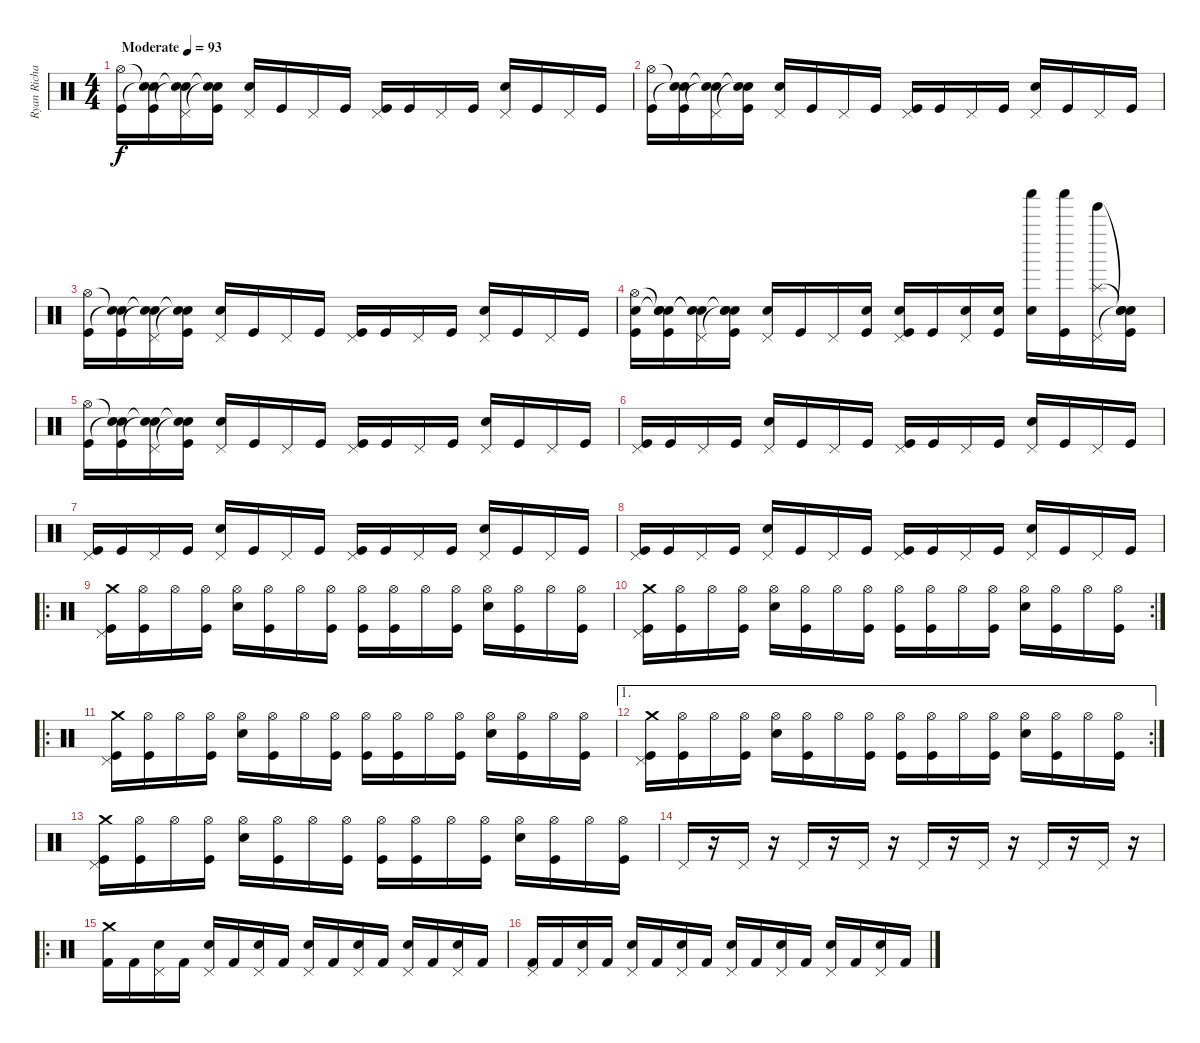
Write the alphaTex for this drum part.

\track ("Ryan Richards" "Ryan Richa") {instrument percussion}
\staff {score}
\articulation defaults
\ts (4 4)
\tempo (93 "Moderate")
\clef neutral
\ks c
("Hi-Hat (open)" "Kick (hit)").16{dy f} ("Snare (hit)"{t} "Snare (hit)"{t} "Kick (hit)").16 ("Snare (hit)"{t} "Pedal Hi-Hat (hit)" "Snare (hit)"{t}).16 ("Snare (hit)"{t} "Snare (hit)"{t} "Kick (hit)").16 ("Pedal Hi-Hat (hit)" "Electric Snare (hit)").16 "Kick (hit)".16 "Pedal Hi-Hat (hit)".16 "Kick (hit)".16 ("Pedal Hi-Hat (hit)" "Kick (hit)").16 "Kick (hit)".16 "Pedal Hi-Hat (hit)".16 "Kick (hit)".16 ("Pedal Hi-Hat (hit)" "Electric Snare (hit)").16 "Kick (hit)".16 "Pedal Hi-Hat (hit)".16 "Kick (hit)".16 |
("Hi-Hat (open)" "Kick (hit)").16 ("Snare (hit)"{t} "Snare (hit)"{t} "Kick (hit)").16 ("Snare (hit)"{t} "Pedal Hi-Hat (hit)" "Snare (hit)"{t}).16 ("Snare (hit)"{t} "Snare (hit)"{t} "Kick (hit)").16 ("Pedal Hi-Hat (hit)" "Electric Snare (hit)").16 "Kick (hit)".16 "Pedal Hi-Hat (hit)".16 "Kick (hit)".16 ("Pedal Hi-Hat (hit)" "Kick (hit)").16 "Kick (hit)".16 "Pedal Hi-Hat (hit)".16 "Kick (hit)".16 ("Pedal Hi-Hat (hit)" "Electric Snare (hit)").16 "Kick (hit)".16 "Pedal Hi-Hat (hit)".16 "Kick (hit)".16 |
("Hi-Hat (open)" "Kick (hit)").16 ("Snare (hit)"{t} "Snare (hit)"{t} "Kick (hit)").16 ("Snare (hit)"{t} "Pedal Hi-Hat (hit)" "Snare (hit)"{t}).16 ("Snare (hit)"{t} "Snare (hit)"{t} "Kick (hit)").16 ("Pedal Hi-Hat (hit)" "Electric Snare (hit)").16 "Kick (hit)".16 "Pedal Hi-Hat (hit)".16 "Kick (hit)".16 ("Pedal Hi-Hat (hit)" "Kick (hit)").16 "Kick (hit)".16 "Pedal Hi-Hat (hit)".16 "Kick (hit)".16 ("Pedal Hi-Hat (hit)" "Electric Snare (hit)").16 "Kick (hit)".16 "Pedal Hi-Hat (hit)".16 "Kick (hit)".16 |
("Hi-Hat (open)" "Electric Snare (hit)" "Kick (hit)").16 ("Snare (hit)"{t} "Snare (hit)"{t} "Electric Snare (hit)" "Kick (hit)").16 ("Snare (hit)"{t} "Pedal Hi-Hat (hit)" "Snare (hit)"{t}).16 ("Snare (hit)"{t} "Snare (hit)"{t} "Electric Snare (hit)" "Kick (hit)").16 ("Pedal Hi-Hat (hit)" "Electric Snare (hit)").16 "Kick (hit)".16 "Pedal Hi-Hat (hit)".16 ("Electric Snare (hit)" "Kick (hit)").16 ("Pedal Hi-Hat (hit)" "Electric Snare (hit)" "Kick (hit)").16 "Kick (hit)".16 ("Pedal Hi-Hat (hit)" "Electric Snare (hit)").16 ("Electric Snare (hit)" "Kick (hit)").16 ("Shaker (hit)" "Electric Snare (hit)").16 ("Shaker (hit)" "Kick (hit)").16 ("Splash (hit)" "Tinkle Bell (hit)" "Pedal Hi-Hat (hit)").16 ("Snare (hit)"{t} "Snare (hit)"{t} "Snare (hit)"{t} "Kick (hit)").16 |
("Hi-Hat (open)" "Kick (hit)").16 ("Snare (hit)"{t} "Snare (hit)"{t} "Kick (hit)").16 ("Snare (hit)"{t} "Pedal Hi-Hat (hit)" "Snare (hit)"{t}).16 ("Snare (hit)"{t} "Snare (hit)"{t} "Kick (hit)").16 ("Pedal Hi-Hat (hit)" "Electric Snare (hit)").16 "Kick (hit)".16 "Pedal Hi-Hat (hit)".16 "Kick (hit)".16 ("Pedal Hi-Hat (hit)" "Kick (hit)").16 "Kick (hit)".16 "Pedal Hi-Hat (hit)".16 "Kick (hit)".16 ("Pedal Hi-Hat (hit)" "Electric Snare (hit)").16 "Kick (hit)".16 "Pedal Hi-Hat (hit)".16 "Kick (hit)".16 |
("Pedal Hi-Hat (hit)" "Kick (hit)").16 "Kick (hit)".16 "Pedal Hi-Hat (hit)".16 "Kick (hit)".16 ("Pedal Hi-Hat (hit)" "Electric Snare (hit)").16 "Kick (hit)".16 "Pedal Hi-Hat (hit)".16 "Kick (hit)".16 ("Pedal Hi-Hat (hit)" "Kick (hit)").16 "Kick (hit)".16 "Pedal Hi-Hat (hit)".16 "Kick (hit)".16 ("Pedal Hi-Hat (hit)" "Electric Snare (hit)").16 "Kick (hit)".16 "Pedal Hi-Hat (hit)".16 "Kick (hit)".16 |
("Pedal Hi-Hat (hit)" "Kick (hit)").16 "Kick (hit)".16 "Pedal Hi-Hat (hit)".16 "Kick (hit)".16 ("Pedal Hi-Hat (hit)" "Electric Snare (hit)").16 "Kick (hit)".16 "Pedal Hi-Hat (hit)".16 "Kick (hit)".16 ("Pedal Hi-Hat (hit)" "Kick (hit)").16 "Kick (hit)".16 "Pedal Hi-Hat (hit)".16 "Kick (hit)".16 ("Pedal Hi-Hat (hit)" "Electric Snare (hit)").16 "Kick (hit)".16 "Pedal Hi-Hat (hit)".16 "Kick (hit)".16 |
("Pedal Hi-Hat (hit)" "Kick (hit)").16 "Kick (hit)".16 "Pedal Hi-Hat (hit)".16 "Kick (hit)".16 ("Pedal Hi-Hat (hit)" "Electric Snare (hit)").16 "Kick (hit)".16 "Pedal Hi-Hat (hit)".16 "Kick (hit)".16 ("Pedal Hi-Hat (hit)" "Kick (hit)").16 "Kick (hit)".16 "Pedal Hi-Hat (hit)".16 "Kick (hit)".16 ("Pedal Hi-Hat (hit)" "Electric Snare (hit)").16 "Kick (hit)".16 "Pedal Hi-Hat (hit)".16 "Kick (hit)".16 |
\ro
("Crash medium (hit)" "Pedal Hi-Hat (hit)" "Kick (hit)").16 ("Hi-Hat (open)" "Kick (hit)").16 "Hi-Hat (open)".16 ("Hi-Hat (open)" "Kick (hit)").16 ("Hi-Hat (open)" "Electric Snare (hit)").16 ("Hi-Hat (open)" "Kick (hit)").16 "Hi-Hat (open)".16 ("Hi-Hat (open)" "Kick (hit)").16 ("Hi-Hat (open)" "Kick (hit)").16 ("Hi-Hat (open)" "Kick (hit)").16 "Hi-Hat (open)".16 ("Hi-Hat (open)" "Kick (hit)").16 ("Hi-Hat (open)" "Electric Snare (hit)").16 ("Hi-Hat (open)" "Kick (hit)").16 "Hi-Hat (open)".16 ("Hi-Hat (open)" "Kick (hit)").16 |
\rc 2
("Crash medium (hit)" "Pedal Hi-Hat (hit)" "Kick (hit)").16 ("Hi-Hat (open)" "Kick (hit)").16 "Hi-Hat (open)".16 ("Hi-Hat (open)" "Kick (hit)").16 ("Hi-Hat (open)" "Electric Snare (hit)").16 ("Hi-Hat (open)" "Kick (hit)").16 "Hi-Hat (open)".16 ("Hi-Hat (open)" "Kick (hit)").16 ("Hi-Hat (open)" "Kick (hit)").16 ("Hi-Hat (open)" "Kick (hit)").16 "Hi-Hat (open)".16 ("Hi-Hat (open)" "Kick (hit)").16 ("Hi-Hat (open)" "Electric Snare (hit)").16 ("Hi-Hat (open)" "Kick (hit)").16 "Hi-Hat (open)".16 ("Hi-Hat (open)" "Kick (hit)").16 |
\ro
("Crash medium (hit)" "Pedal Hi-Hat (hit)" "Kick (hit)").16 ("Hi-Hat (open)" "Kick (hit)").16 "Hi-Hat (open)".16 ("Hi-Hat (open)" "Kick (hit)").16 ("Hi-Hat (open)" "Electric Snare (hit)").16 ("Hi-Hat (open)" "Kick (hit)").16 "Hi-Hat (open)".16 ("Hi-Hat (open)" "Kick (hit)").16 ("Hi-Hat (open)" "Kick (hit)").16 ("Hi-Hat (open)" "Kick (hit)").16 "Hi-Hat (open)".16 ("Hi-Hat (open)" "Kick (hit)").16 ("Hi-Hat (open)" "Electric Snare (hit)").16 ("Hi-Hat (open)" "Kick (hit)").16 "Hi-Hat (open)".16 ("Hi-Hat (open)" "Kick (hit)").16 |
\ae 1
\rc 2
("Crash medium (hit)" "Pedal Hi-Hat (hit)" "Kick (hit)").16 ("Hi-Hat (open)" "Kick (hit)").16 "Hi-Hat (open)".16 ("Hi-Hat (open)" "Kick (hit)").16 ("Hi-Hat (open)" "Electric Snare (hit)").16 ("Hi-Hat (open)" "Kick (hit)").16 "Hi-Hat (open)".16 ("Hi-Hat (open)" "Kick (hit)").16 ("Hi-Hat (open)" "Kick (hit)").16 ("Hi-Hat (open)" "Kick (hit)").16 "Hi-Hat (open)".16 ("Hi-Hat (open)" "Kick (hit)").16 ("Hi-Hat (open)" "Electric Snare (hit)").16 ("Hi-Hat (open)" "Kick (hit)").16 "Hi-Hat (open)".16 ("Hi-Hat (open)" "Kick (hit)").16 |
("Crash medium (hit)" "Pedal Hi-Hat (hit)" "Kick (hit)").16 ("Hi-Hat (open)" "Kick (hit)").16 "Hi-Hat (open)".16 ("Hi-Hat (open)" "Kick (hit)").16 ("Hi-Hat (open)" "Electric Snare (hit)").16 ("Hi-Hat (open)" "Kick (hit)").16 "Hi-Hat (open)".16 ("Hi-Hat (open)" "Kick (hit)").16 ("Hi-Hat (open)" "Kick (hit)").16 ("Hi-Hat (open)" "Kick (hit)").16 "Hi-Hat (open)".16 ("Hi-Hat (open)" "Kick (hit)").16 ("Hi-Hat (open)" "Electric Snare (hit)").16 ("Hi-Hat (open)" "Kick (hit)").16 "Hi-Hat (open)".16 ("Hi-Hat (open)" "Kick (hit)").16 |
"Pedal Hi-Hat (hit)".16 r.16 "Pedal Hi-Hat (hit)".16 r.16 "Pedal Hi-Hat (hit)".16 r.16 "Pedal Hi-Hat (hit)".16 r.16 "Pedal Hi-Hat (hit)".16 r.16 "Pedal Hi-Hat (hit)".16 r.16 "Pedal Hi-Hat (hit)".16 r.16 "Pedal Hi-Hat (hit)".16 r.16 |
\ro
("Crash medium (hit)" "Kick (hit) 2").16 "Kick (hit) 2".16 ("Pedal Hi-Hat (hit)" "Electric Snare (hit)").16 "Kick (hit) 2".16 ("Pedal Hi-Hat (hit)" "Electric Snare (hit)").16 "Kick (hit) 2".16 ("Pedal Hi-Hat (hit)" "Electric Snare (hit)").16 "Kick (hit) 2".16 ("Pedal Hi-Hat (hit)" "Electric Snare (hit)").16 "Kick (hit) 2".16 ("Pedal Hi-Hat (hit)" "Electric Snare (hit)").16 "Kick (hit) 2".16 ("Pedal Hi-Hat (hit)" "Electric Snare (hit)").16 "Kick (hit) 2".16 ("Pedal Hi-Hat (hit)" "Electric Snare (hit)").16 "Kick (hit) 2".16 |
("Pedal Hi-Hat (hit)" "Kick (hit) 2").16 "Kick (hit) 2".16 ("Pedal Hi-Hat (hit)" "Electric Snare (hit)").16 "Kick (hit) 2".16 ("Pedal Hi-Hat (hit)" "Electric Snare (hit)").16 "Kick (hit) 2".16 ("Pedal Hi-Hat (hit)" "Electric Snare (hit)").16 "Kick (hit) 2".16 ("Pedal Hi-Hat (hit)" "Electric Snare (hit)").16 "Kick (hit) 2".16 ("Pedal Hi-Hat (hit)" "Electric Snare (hit)").16 "Kick (hit) 2".16 ("Pedal Hi-Hat (hit)" "Electric Snare (hit)").16 "Kick (hit) 2".16 ("Pedal Hi-Hat (hit)" "Electric Snare (hit)").16 "Kick (hit) 2".16
